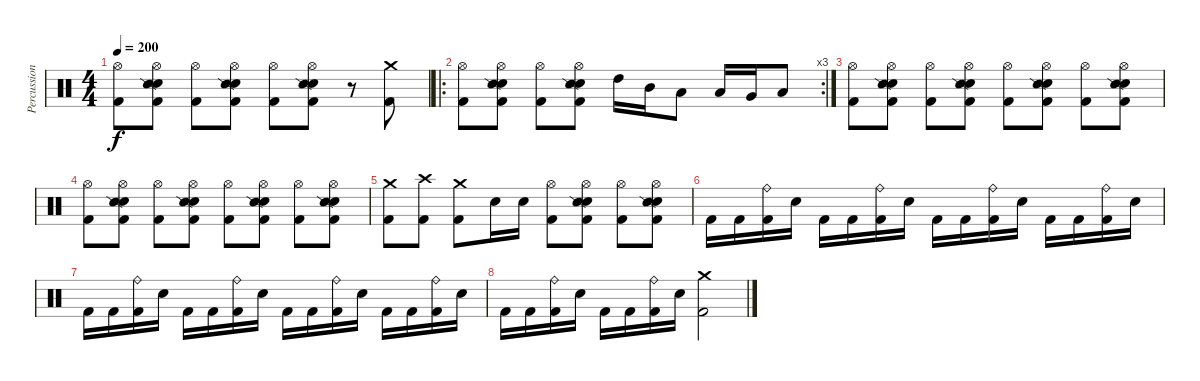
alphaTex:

\track ("Percussion" "Percussion") {instrument percussion}
\staff {score}
\articulation defaults
\ts (4 4)
\tempo 200
\clef neutral
\ks c
("Hi-Hat (open)" "Kick (hit) 2").8{dy f} ("Hi-Hat (open)" "Electric Snare (hit)" "Snare (side stick) 2" "Kick (hit) 2").8 ("Hi-Hat (open)" "Kick (hit) 2").8 ("Hi-Hat (open)" "Electric Snare (hit)" "Snare (side stick) 2" "Kick (hit) 2").8 ("Hi-Hat (open)" "Kick (hit) 2").8 ("Hi-Hat (open)" "Electric Snare (hit)" "Snare (side stick) 2" "Kick (hit) 2").8 r.8 ("Crash medium (hit)" "Kick (hit) 2").8 |
\ro
\rc 3
("Hi-Hat (open)" "Kick (hit) 2").8 ("Hi-Hat (open)" "Electric Snare (hit)" "Snare (side stick) 2" "Kick (hit) 2").8 ("Hi-Hat (open)" "Kick (hit) 2").8 ("Hi-Hat (open)" "Electric Snare (hit)" "Snare (side stick) 2" "Kick (hit) 2").8 "High Tom (hit)".16 "Mid Tom (hit)".16 "Low Tom (hit)".8 "Low Tom (hit)".16 "Very Low Tom (hit)".16 "Low Floor Tom (hit)".8 |
("Hi-Hat (open)" "Kick (hit) 2").8 ("Hi-Hat (open)" "Electric Snare (hit)" "Snare (side stick) 2" "Kick (hit) 2").8 ("Hi-Hat (open)" "Kick (hit) 2").8 ("Hi-Hat (open)" "Electric Snare (hit)" "Snare (side stick) 2" "Kick (hit) 2").8 ("Hi-Hat (open)" "Kick (hit) 2").8 ("Hi-Hat (open)" "Electric Snare (hit)" "Snare (side stick) 2" "Kick (hit) 2").8 ("Hi-Hat (open)" "Kick (hit) 2").8 ("Hi-Hat (open)" "Electric Snare (hit)" "Snare (side stick) 2" "Kick (hit) 2").8 |
("Hi-Hat (open)" "Kick (hit) 2").8 ("Hi-Hat (open)" "Electric Snare (hit)" "Snare (side stick) 2" "Kick (hit) 2").8 ("Hi-Hat (open)" "Kick (hit) 2").8 ("Hi-Hat (open)" "Electric Snare (hit)" "Snare (side stick) 2" "Kick (hit) 2").8 ("Hi-Hat (open)" "Kick (hit) 2").8 ("Hi-Hat (open)" "Electric Snare (hit)" "Snare (side stick) 2" "Kick (hit) 2").8 ("Hi-Hat (open)" "Kick (hit) 2").8 ("Hi-Hat (open)" "Electric Snare (hit)" "Snare (side stick) 2" "Kick (hit) 2").8 |
("Crash medium (hit)" "Kick (hit) 2").8 ("Crash high (hit)" "Kick (hit) 2").8 ("Crash medium (hit)" "Kick (hit) 2").8 "Electric Snare (hit)".16 "Electric Snare (hit)".16 ("Hi-Hat (open)" "Kick (hit) 2").8 ("Hi-Hat (open)" "Electric Snare (hit)" "Snare (side stick) 2" "Kick (hit) 2").8 ("Hi-Hat (open)" "Kick (hit) 2").8 ("Hi-Hat (open)" "Electric Snare (hit)" "Snare (side stick) 2" "Kick (hit) 2").8 |
"Kick (hit) 2".16 "Kick (hit) 2".16 ("Ride (bell)" "Kick (hit) 2").16 "Electric Snare (hit)".16 "Kick (hit) 2".16 "Kick (hit) 2".16 ("Ride (bell)" "Kick (hit) 2").16 "Electric Snare (hit)".16 "Kick (hit) 2".16 "Kick (hit) 2".16 ("Ride (bell)" "Kick (hit) 2").16 "Electric Snare (hit)".16 "Kick (hit) 2".16 "Kick (hit) 2".16 ("Ride (bell)" "Kick (hit) 2").16 "Electric Snare (hit)".16 |
"Kick (hit) 2".16 "Kick (hit) 2".16 ("Ride (bell)" "Kick (hit) 2").16 "Electric Snare (hit)".16 "Kick (hit) 2".16 "Kick (hit) 2".16 ("Ride (bell)" "Kick (hit) 2").16 "Electric Snare (hit)".16 "Kick (hit) 2".16 "Kick (hit) 2".16 ("Ride (bell)" "Kick (hit) 2").16 "Electric Snare (hit)".16 "Kick (hit) 2".16 "Kick (hit) 2".16 ("Ride (bell)" "Kick (hit) 2").16 "Electric Snare (hit)".16 |
"Kick (hit) 2".16 "Kick (hit) 2".16 ("Ride (bell)" "Kick (hit) 2").16 "Electric Snare (hit)".16 "Kick (hit) 2".16 "Kick (hit) 2".16 ("Ride (bell)" "Kick (hit) 2").16 "Electric Snare (hit)".16 ("Crash medium (hit)" "Kick (hit) 2").2
